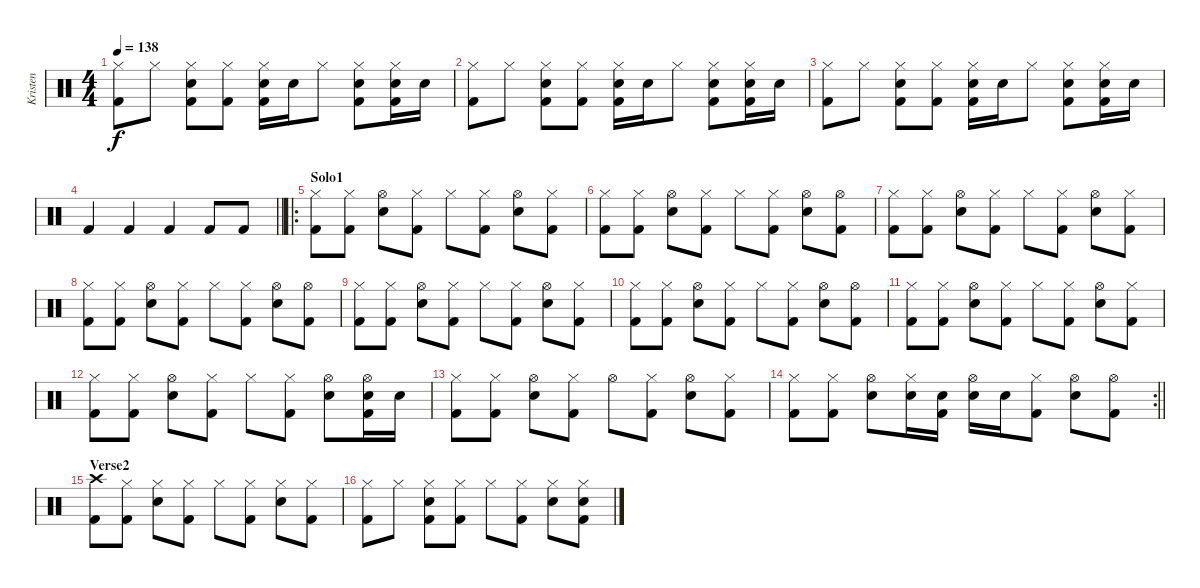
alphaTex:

\track ("Kristen" "Kristen") {instrument percussion}
\staff {score}
\articulation defaults
\ts (4 4)
\tempo 138
\clef neutral
\ks c
("Hi-Hat (closed)" "Kick (hit) 2").8{dy f} "Hi-Hat (closed)".8 ("Hi-Hat (closed)" "Snare (hit) 2" "Kick (hit) 2").8 ("Hi-Hat (closed)" "Kick (hit) 2").8 ("Hi-Hat (closed)" "Snare (hit) 2" "Kick (hit) 2").16 "Snare (hit) 2".16 "Hi-Hat (closed)".8 ("Hi-Hat (closed)" "Snare (hit) 2" "Kick (hit) 2").8 ("Hi-Hat (closed)" "Snare (hit) 2" "Kick (hit) 2").16 "Snare (hit) 2".16 |
("Hi-Hat (closed)" "Kick (hit) 2").8 "Hi-Hat (closed)".8 ("Hi-Hat (closed)" "Snare (hit) 2" "Kick (hit) 2").8 ("Hi-Hat (closed)" "Kick (hit) 2").8 ("Hi-Hat (closed)" "Snare (hit) 2" "Kick (hit) 2").16 "Snare (hit) 2".16 "Hi-Hat (closed)".8 ("Hi-Hat (closed)" "Snare (hit) 2" "Kick (hit) 2").8 ("Hi-Hat (closed)" "Snare (hit) 2" "Kick (hit) 2").16 "Snare (hit) 2".16 |
("Hi-Hat (closed)" "Kick (hit) 2").8 "Hi-Hat (closed)".8 ("Hi-Hat (closed)" "Snare (hit) 2" "Kick (hit) 2").8 ("Hi-Hat (closed)" "Kick (hit) 2").8 ("Hi-Hat (closed)" "Snare (hit) 2" "Kick (hit) 2").16 "Snare (hit) 2".16 "Hi-Hat (closed)".8 ("Hi-Hat (closed)" "Snare (hit) 2" "Kick (hit) 2").8 ("Hi-Hat (closed)" "Snare (hit) 2" "Kick (hit) 2").16 "Snare (hit) 2".16 |
\barLineRight lightlight "Kick (hit) 2".4 "Kick (hit) 2".4 "Kick (hit) 2".4 "Kick (hit) 2".8 "Kick (hit) 2".8
|
\ro
\section ("" "Solo1")
("Hi-Hat (closed)" "Kick (hit) 2").8 ("Hi-Hat (closed)" "Kick (hit) 2").8 ("Hi-Hat (open)" "Snare (hit) 2").8 ("Hi-Hat (closed)" "Kick (hit) 2").8 "Hi-Hat (closed)".8 ("Hi-Hat (closed)" "Kick (hit) 2").8 ("Hi-Hat (open)" "Snare (hit) 2").8 ("Hi-Hat (closed)" "Kick (hit) 2").8 |
("Hi-Hat (closed)" "Kick (hit) 2").8 ("Hi-Hat (closed)" "Kick (hit) 2").8 ("Hi-Hat (open)" "Snare (hit) 2").8 ("Hi-Hat (closed)" "Kick (hit) 2").8 "Hi-Hat (closed)".8 ("Hi-Hat (closed)" "Kick (hit) 2").8 ("Hi-Hat (open)" "Snare (hit) 2").8 ("Hi-Hat (open)" "Kick (hit) 2").8 |
("Hi-Hat (closed)" "Kick (hit) 2").8 ("Hi-Hat (closed)" "Kick (hit) 2").8 ("Hi-Hat (open)" "Snare (hit) 2").8 ("Hi-Hat (closed)" "Kick (hit) 2").8 "Hi-Hat (closed)".8 ("Hi-Hat (closed)" "Kick (hit) 2").8 ("Hi-Hat (open)" "Snare (hit) 2").8 ("Hi-Hat (closed)" "Kick (hit) 2").8 |
("Hi-Hat (closed)" "Kick (hit) 2").8 ("Hi-Hat (closed)" "Kick (hit) 2").8 ("Hi-Hat (open)" "Snare (hit) 2").8 ("Hi-Hat (closed)" "Kick (hit) 2").8 "Hi-Hat (closed)".8 ("Hi-Hat (closed)" "Kick (hit) 2").8 ("Hi-Hat (open)" "Snare (hit) 2").8 ("Hi-Hat (open)" "Kick (hit) 2").8 |
("Hi-Hat (closed)" "Kick (hit) 2").8 ("Hi-Hat (closed)" "Kick (hit) 2").8 ("Hi-Hat (open)" "Snare (hit) 2").8 ("Hi-Hat (closed)" "Kick (hit) 2").8 "Hi-Hat (closed)".8 ("Hi-Hat (closed)" "Kick (hit) 2").8 ("Hi-Hat (open)" "Snare (hit) 2").8 ("Hi-Hat (closed)" "Kick (hit) 2").8 |
("Hi-Hat (closed)" "Kick (hit) 2").8 ("Hi-Hat (closed)" "Kick (hit) 2").8 ("Hi-Hat (open)" "Snare (hit) 2").8 ("Hi-Hat (closed)" "Kick (hit) 2").8 "Hi-Hat (closed)".8 ("Hi-Hat (closed)" "Kick (hit) 2").8 ("Hi-Hat (open)" "Snare (hit) 2").8 ("Hi-Hat (open)" "Kick (hit) 2").8 |
("Hi-Hat (closed)" "Kick (hit) 2").8 ("Hi-Hat (closed)" "Kick (hit) 2").8 ("Hi-Hat (open)" "Snare (hit) 2").8 ("Hi-Hat (closed)" "Kick (hit) 2").8 "Hi-Hat (closed)".8 ("Hi-Hat (closed)" "Kick (hit) 2").8 ("Hi-Hat (open)" "Snare (hit) 2").8 ("Hi-Hat (closed)" "Kick (hit) 2").8 |
("Hi-Hat (closed)" "Kick (hit) 2").8 ("Hi-Hat (closed)" "Kick (hit) 2").8 ("Hi-Hat (open)" "Snare (hit) 2").8 ("Hi-Hat (closed)" "Kick (hit) 2").8 "Hi-Hat (closed)".8 ("Hi-Hat (closed)" "Kick (hit) 2").8 ("Hi-Hat (open)" "Snare (hit) 2").8 ("Hi-Hat (open)" "Snare (hit) 2" "Kick (hit) 2").16 "Snare (hit) 2".16 |
("Hi-Hat (closed)" "Kick (hit) 2").8 ("Hi-Hat (closed)" "Kick (hit) 2").8 ("Hi-Hat (open)" "Snare (hit) 2").8 ("Hi-Hat (closed)" "Kick (hit) 2").8 "Hi-Hat (open)".8 ("Hi-Hat (closed)" "Kick (hit) 2").8 ("Hi-Hat (open)" "Snare (hit) 2").8 ("Hi-Hat (closed)" "Kick (hit) 2").8 |
\rc 2
\barLineRight lightlight
("Hi-Hat (closed)" "Kick (hit) 2").8 ("Hi-Hat (closed)" "Kick (hit) 2").8 ("Hi-Hat (open)" "Snare (hit) 2").8 ("Hi-Hat (closed)" "Snare (hit) 2").16 ("Snare (hit) 2" "Kick (hit) 2").16 ("Hi-Hat (open)" "Snare (hit) 2").16 "Snare (hit) 2".16 ("Hi-Hat (closed)" "Kick (hit) 2").8 ("Hi-Hat (open)" "Snare (hit) 2").8 ("Hi-Hat (open)" "Kick (hit) 2").8 |
\section ("" "Verse2")
("Crash high (hit)" "Kick (hit) 2").8 ("Hi-Hat (closed)" "Kick (hit) 2").8 ("Hi-Hat (closed)" "Snare (hit) 2").8 ("Hi-Hat (closed)" "Kick (hit) 2").8 "Hi-Hat (closed)".8 ("Hi-Hat (closed)" "Kick (hit) 2").8 ("Hi-Hat (closed)" "Snare (hit) 2").8 ("Hi-Hat (closed)" "Kick (hit) 2").8 |
("Hi-Hat (closed)" "Kick (hit) 2").8 "Hi-Hat (closed)".8 ("Hi-Hat (closed)" "Snare (hit) 2" "Kick (hit) 2").8 ("Hi-Hat (closed)" "Kick (hit) 2").8 "Hi-Hat (closed)".8 ("Hi-Hat (closed)" "Kick (hit) 2").8 ("Hi-Hat (closed)" "Snare (hit) 2").8 ("Hi-Hat (closed)" "Snare (hit) 2" "Kick (hit) 2").8
